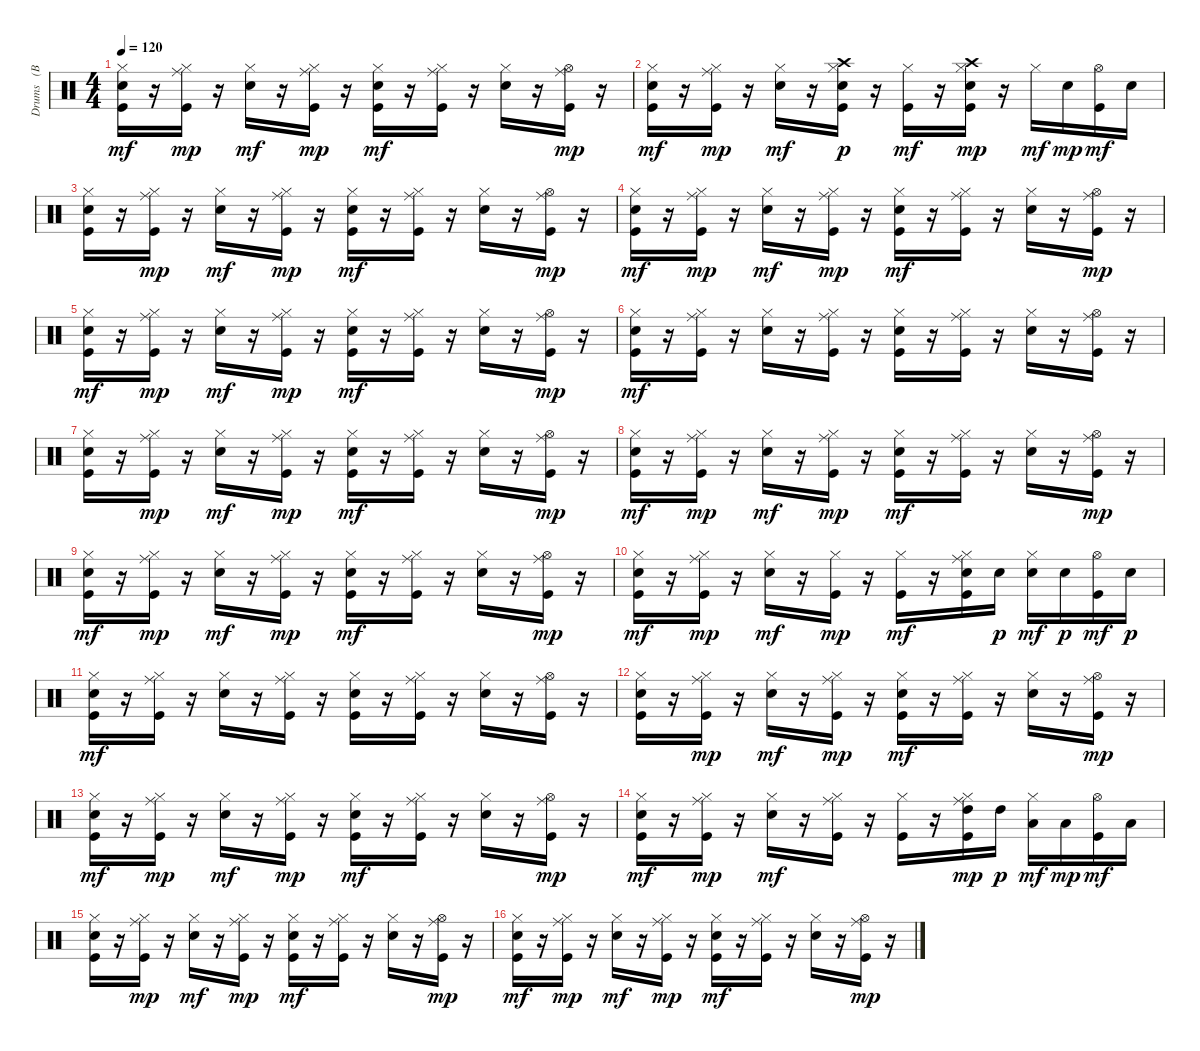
\track ("Drums   (BB)" "Drums   (B") {instrument percussion}
\staff {score}
\articulation defaults
\ts (4 4)
\tempo 120
\clef neutral
\ks c
("Kick (hit)" "Electric Snare (hit)" "Hi-Hat (closed)").16{dy mf} r.16 ("Kick (hit)" "Hi-Hat (closed)" "Ride (middle)").16{dy mp} r.16 ("Electric Snare (hit)" "Hi-Hat (closed)").16{dy mf} r.16 ("Kick (hit)" "Hi-Hat (closed)" "Ride (middle)").16{dy mp} r.16 ("Kick (hit)" "Electric Snare (hit)" "Hi-Hat (closed)").16{dy mf} r.16 ("Kick (hit)" "Hi-Hat (closed)" "Ride (middle)").16 r.16 ("Electric Snare (hit)" "Hi-Hat (closed)").16 r.16 ("Kick (hit)" "Hi-Hat (open)" "Ride (middle)").16{dy mp} r.16 |
("Kick (hit)" "Electric Snare (hit)" "Hi-Hat (closed)").16{dy mf} r.16 ("Kick (hit)" "Hi-Hat (closed)" "Ride (middle)").16{dy mp} r.16 ("Electric Snare (hit)" "Hi-Hat (closed)").16{dy mf} r.16 ("Kick (hit)" "Electric Snare (hit)" "Hi-Hat (closed)" "Crash high (hit)").16{dy p} r.16 ("Kick (hit)" "Hi-Hat (closed)").16{dy mf} r.16 ("Kick (hit)" "Electric Snare (hit)" "Hi-Hat (closed)" "Crash high (hit)").16{dy mp} r.16 "Hi-Hat (closed)".16{dy mf} "Electric Snare (hit)".16{dy mp} ("Kick (hit)" "Hi-Hat (open)").16{dy mf} "Electric Snare (hit)".16 |
("Kick (hit)" "Electric Snare (hit)" "Hi-Hat (closed)").16 r.16 ("Kick (hit)" "Hi-Hat (closed)" "Ride (middle)").16{dy mp} r.16 ("Electric Snare (hit)" "Hi-Hat (closed)").16{dy mf} r.16 ("Kick (hit)" "Hi-Hat (closed)" "Ride (middle)").16{dy mp} r.16 ("Kick (hit)" "Electric Snare (hit)" "Hi-Hat (closed)").16{dy mf} r.16 ("Kick (hit)" "Hi-Hat (closed)" "Ride (middle)").16 r.16 ("Electric Snare (hit)" "Hi-Hat (closed)").16 r.16 ("Kick (hit)" "Hi-Hat (open)" "Ride (middle)").16{dy mp} r.16 |
("Kick (hit)" "Electric Snare (hit)" "Hi-Hat (closed)").16{dy mf} r.16 ("Kick (hit)" "Hi-Hat (closed)" "Ride (middle)").16{dy mp} r.16 ("Electric Snare (hit)" "Hi-Hat (closed)").16{dy mf} r.16 ("Kick (hit)" "Hi-Hat (closed)" "Ride (middle)").16{dy mp} r.16 ("Kick (hit)" "Electric Snare (hit)" "Hi-Hat (closed)").16{dy mf} r.16 ("Kick (hit)" "Hi-Hat (closed)" "Ride (middle)").16 r.16 ("Electric Snare (hit)" "Hi-Hat (closed)").16 r.16 ("Kick (hit)" "Hi-Hat (open)" "Ride (middle)").16{dy mp} r.16 |
("Kick (hit)" "Electric Snare (hit)" "Hi-Hat (closed)").16{dy mf} r.16 ("Kick (hit)" "Hi-Hat (closed)" "Ride (middle)").16{dy mp} r.16 ("Electric Snare (hit)" "Hi-Hat (closed)").16{dy mf} r.16 ("Kick (hit)" "Hi-Hat (closed)" "Ride (middle)").16{dy mp} r.16 ("Kick (hit)" "Electric Snare (hit)" "Hi-Hat (closed)").16{dy mf} r.16 ("Kick (hit)" "Hi-Hat (closed)" "Ride (middle)").16 r.16 ("Electric Snare (hit)" "Hi-Hat (closed)").16 r.16 ("Kick (hit)" "Hi-Hat (open)" "Ride (middle)").16{dy mp} r.16 |
("Kick (hit)" "Electric Snare (hit)" "Hi-Hat (closed)").16{dy mf} r.16 ("Kick (hit)" "Hi-Hat (closed)" "Ride (middle)").16 r.16 ("Electric Snare (hit)" "Hi-Hat (closed)").16 r.16 ("Kick (hit)" "Hi-Hat (closed)" "Ride (middle)").16 r.16 ("Kick (hit)" "Electric Snare (hit)" "Hi-Hat (closed)").16 r.16 ("Kick (hit)" "Hi-Hat (closed)" "Ride (middle)").16 r.16 ("Electric Snare (hit)" "Hi-Hat (closed)").16 r.16 ("Kick (hit)" "Hi-Hat (open)" "Ride (middle)").16 r.16 |
("Kick (hit)" "Electric Snare (hit)" "Hi-Hat (closed)").16 r.16 ("Kick (hit)" "Hi-Hat (closed)" "Ride (middle)").16{dy mp} r.16 ("Electric Snare (hit)" "Hi-Hat (closed)").16{dy mf} r.16 ("Kick (hit)" "Hi-Hat (closed)" "Ride (middle)").16{dy mp} r.16 ("Kick (hit)" "Electric Snare (hit)" "Hi-Hat (closed)").16{dy mf} r.16 ("Kick (hit)" "Hi-Hat (closed)" "Ride (middle)").16 r.16 ("Electric Snare (hit)" "Hi-Hat (closed)").16 r.16 ("Kick (hit)" "Hi-Hat (open)" "Ride (middle)").16{dy mp} r.16 |
("Kick (hit)" "Electric Snare (hit)" "Hi-Hat (closed)").16{dy mf} r.16 ("Kick (hit)" "Hi-Hat (closed)" "Ride (middle)").16{dy mp} r.16 ("Electric Snare (hit)" "Hi-Hat (closed)").16{dy mf} r.16 ("Kick (hit)" "Hi-Hat (closed)" "Ride (middle)").16{dy mp} r.16 ("Kick (hit)" "Electric Snare (hit)" "Hi-Hat (closed)").16{dy mf} r.16 ("Kick (hit)" "Hi-Hat (closed)" "Ride (middle)").16 r.16 ("Electric Snare (hit)" "Hi-Hat (closed)").16 r.16 ("Kick (hit)" "Hi-Hat (open)" "Ride (middle)").16{dy mp} r.16 |
("Kick (hit)" "Electric Snare (hit)" "Hi-Hat (closed)").16{dy mf} r.16 ("Kick (hit)" "Hi-Hat (closed)" "Ride (middle)").16{dy mp} r.16 ("Electric Snare (hit)" "Hi-Hat (closed)").16{dy mf} r.16 ("Kick (hit)" "Hi-Hat (closed)" "Ride (middle)").16{dy mp} r.16 ("Kick (hit)" "Electric Snare (hit)" "Hi-Hat (closed)").16{dy mf} r.16 ("Kick (hit)" "Hi-Hat (closed)" "Ride (middle)").16 r.16 ("Electric Snare (hit)" "Hi-Hat (closed)").16 r.16 ("Kick (hit)" "Hi-Hat (open)" "Ride (middle)").16{dy mp} r.16 |
("Kick (hit)" "Electric Snare (hit)" "Hi-Hat (closed)").16{dy mf} r.16 ("Kick (hit)" "Hi-Hat (closed)" "Ride (middle)").16{dy mp} r.16 ("Electric Snare (hit)" "Hi-Hat (closed)").16{dy mf} r.16 ("Kick (hit)" "Hi-Hat (closed)").16{dy mp} r.16 ("Kick (hit)" "Hi-Hat (closed)").16{dy mf} r.16 ("Kick (hit)" "Electric Snare (hit)" "Hi-Hat (closed)" "Ride (middle)").16 "Electric Snare (hit)".16{dy p} ("Electric Snare (hit)" "Hi-Hat (closed)").16{dy mf} "Electric Snare (hit)".16{dy p} ("Kick (hit)" "Hi-Hat (open)").16{dy mf} "Electric Snare (hit)".16{dy p} |
("Kick (hit)" "Electric Snare (hit)" "Hi-Hat (closed)").16{dy mf} r.16 ("Kick (hit)" "Hi-Hat (closed)" "Ride (middle)").16 r.16 ("Electric Snare (hit)" "Hi-Hat (closed)").16 r.16 ("Kick (hit)" "Hi-Hat (closed)" "Ride (middle)").16 r.16 ("Kick (hit)" "Electric Snare (hit)" "Hi-Hat (closed)").16 r.16 ("Kick (hit)" "Hi-Hat (closed)" "Ride (middle)").16 r.16 ("Electric Snare (hit)" "Hi-Hat (closed)").16 r.16 ("Kick (hit)" "Hi-Hat (open)" "Ride (middle)").16 r.16 |
("Kick (hit)" "Electric Snare (hit)" "Hi-Hat (closed)").16 r.16 ("Kick (hit)" "Hi-Hat (closed)" "Ride (middle)").16{dy mp} r.16 ("Electric Snare (hit)" "Hi-Hat (closed)").16{dy mf} r.16 ("Kick (hit)" "Hi-Hat (closed)" "Ride (middle)").16{dy mp} r.16 ("Kick (hit)" "Electric Snare (hit)" "Hi-Hat (closed)").16{dy mf} r.16 ("Kick (hit)" "Hi-Hat (closed)" "Ride (middle)").16 r.16 ("Electric Snare (hit)" "Hi-Hat (closed)").16 r.16 ("Kick (hit)" "Hi-Hat (open)" "Ride (middle)").16{dy mp} r.16 |
("Kick (hit)" "Electric Snare (hit)" "Hi-Hat (closed)").16{dy mf} r.16 ("Kick (hit)" "Hi-Hat (closed)" "Ride (middle)").16{dy mp} r.16 ("Electric Snare (hit)" "Hi-Hat (closed)").16{dy mf} r.16 ("Kick (hit)" "Hi-Hat (closed)" "Ride (middle)").16{dy mp} r.16 ("Kick (hit)" "Electric Snare (hit)" "Hi-Hat (closed)").16{dy mf} r.16 ("Kick (hit)" "Hi-Hat (closed)" "Ride (middle)").16 r.16 ("Electric Snare (hit)" "Hi-Hat (closed)").16 r.16 ("Kick (hit)" "Hi-Hat (open)" "Ride (middle)").16{dy mp} r.16 |
("Kick (hit)" "Electric Snare (hit)" "Hi-Hat (closed)").16{dy mf} r.16 ("Kick (hit)" "Hi-Hat (closed)" "Ride (middle)").16{dy mp} r.16 ("Electric Snare (hit)" "Hi-Hat (closed)").16{dy mf} r.16 ("Kick (hit)" "Hi-Hat (closed)" "Ride (middle)").16 r.16 ("Kick (hit)" "Hi-Hat (closed)").16 r.16 ("Kick (hit)" "Hi-Hat (closed)" "Ride (middle)" "High Tom (hit)").16{dy mp} "High Tom (hit)".16{dy p} ("Hi-Hat (closed)" "Low Tom (hit)").16{dy mf} "Low Tom (hit)".16{dy mp} ("Kick (hit)" "Hi-Hat (open)").16{dy mf} "Low Tom (hit)".16 |
("Kick (hit)" "Electric Snare (hit)" "Hi-Hat (closed)").16 r.16 ("Kick (hit)" "Hi-Hat (closed)" "Ride (middle)").16{dy mp} r.16 ("Electric Snare (hit)" "Hi-Hat (closed)").16{dy mf} r.16 ("Kick (hit)" "Hi-Hat (closed)" "Ride (middle)").16{dy mp} r.16 ("Kick (hit)" "Electric Snare (hit)" "Hi-Hat (closed)").16{dy mf} r.16 ("Kick (hit)" "Hi-Hat (closed)" "Ride (middle)").16 r.16 ("Electric Snare (hit)" "Hi-Hat (closed)").16 r.16 ("Kick (hit)" "Hi-Hat (open)" "Ride (middle)").16{dy mp} r.16 |
("Kick (hit)" "Electric Snare (hit)" "Hi-Hat (closed)").16{dy mf} r.16 ("Kick (hit)" "Hi-Hat (closed)" "Ride (middle)").16{dy mp} r.16 ("Electric Snare (hit)" "Hi-Hat (closed)").16{dy mf} r.16 ("Kick (hit)" "Hi-Hat (closed)" "Ride (middle)").16{dy mp} r.16 ("Kick (hit)" "Electric Snare (hit)" "Hi-Hat (closed)").16{dy mf} r.16 ("Kick (hit)" "Hi-Hat (closed)" "Ride (middle)").16 r.16 ("Electric Snare (hit)" "Hi-Hat (closed)").16 r.16 ("Kick (hit)" "Hi-Hat (open)" "Ride (middle)").16{dy mp} r.16
